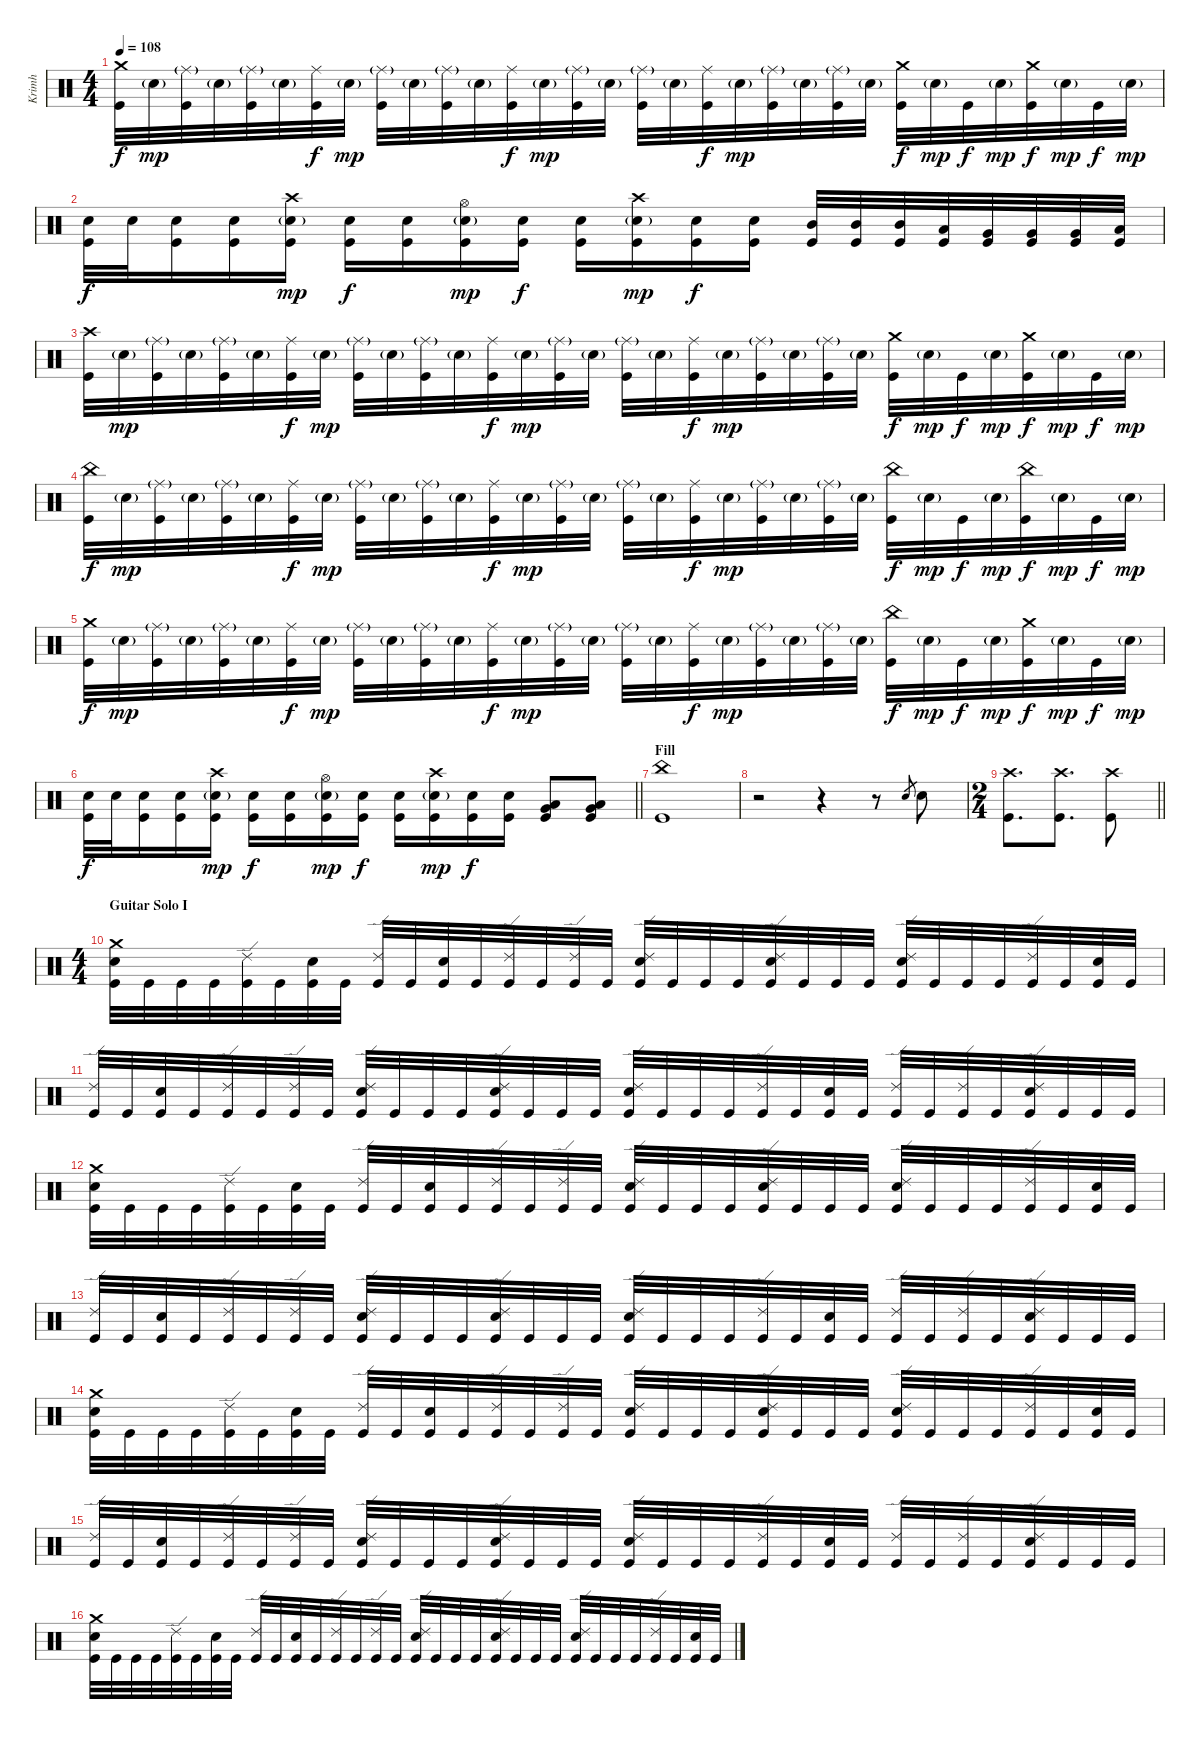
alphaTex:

\track ("Krimh" "Krimh") {instrument percussion}
\staff {score}
\articulation defaults
\ts (4 4)
\tempo 108
\clef neutral
\ks c
("Crash medium (hit)" "Kick (hit)").32{dy f} "Electric Snare (hit)"{g}.32{dy mp} ("Ride (middle)"{g} "Kick (hit)").32 "Electric Snare (hit)"{g}.32 ("Ride (middle)"{g} "Kick (hit)").32 "Electric Snare (hit)"{g}.32 ("Ride (middle)" "Kick (hit)").32{dy f} "Electric Snare (hit)"{g}.32{dy mp} ("Ride (middle)"{g} "Kick (hit)").32 "Electric Snare (hit)"{g}.32 ("Ride (middle)"{g} "Kick (hit)").32 "Electric Snare (hit)"{g}.32 ("Ride (middle)" "Kick (hit)").32{dy f} "Electric Snare (hit)"{g}.32{dy mp} ("Ride (middle)"{g} "Kick (hit)").32 "Electric Snare (hit)"{g}.32 ("Ride (middle)"{g} "Kick (hit)").32 "Electric Snare (hit)"{g}.32 ("Ride (middle)" "Kick (hit)").32{dy f} "Electric Snare (hit)"{g}.32{dy mp} ("Ride (middle)"{g} "Kick (hit)").32 "Electric Snare (hit)"{g}.32 ("Ride (middle)"{g} "Kick (hit)").32 "Electric Snare (hit)"{g}.32 ("Crash medium (hit)" "Kick (hit)").32{dy f} "Electric Snare (hit)"{g}.32{dy mp} "Kick (hit)".32{dy f} "Electric Snare (hit)"{g}.32{dy mp} ("Crash medium (hit)" "Kick (hit)").32{dy f} "Electric Snare (hit)"{g}.32{dy mp} "Kick (hit)".32{dy f} "Electric Snare (hit)"{g}.32{dy mp} |
("Electric Snare (hit)" "Kick (hit)").32{dy f} "Electric Snare (hit)".32 ("Electric Snare (hit)" "Kick (hit)").16 ("Electric Snare (hit)" "Kick (hit)").16 ("Crash high (hit)" "Electric Snare (hit)"{g} "Kick (hit)").16{dy mp} ("Electric Snare (hit)" "Kick (hit)").16{dy f} ("Electric Snare (hit)" "Kick (hit)").16 ("Hi-Hat (open)" "Electric Snare (hit)"{g} "Kick (hit)").16{dy mp} ("Electric Snare (hit)" "Kick (hit)").16{dy f} ("Electric Snare (hit)" "Kick (hit)").16 ("Crash high (hit)" "Electric Snare (hit)"{g} "Kick (hit)").16{dy mp} ("Electric Snare (hit)" "Kick (hit)").16{dy f} ("Electric Snare (hit)" "Kick (hit)").16 ("Mid Tom (hit)" "Kick (hit)").32 ("Mid Tom (hit)" "Kick (hit)").32 ("Mid Tom (hit)" "Kick (hit)").32 ("Low Tom (hit)" "Kick (hit)").32 ("Very Low Tom (hit)" "Kick (hit)").32 ("Very Low Tom (hit)" "Kick (hit)").32 ("Very Low Tom (hit)" "Kick (hit)").32 ("Low Floor Tom (hit)" "Kick (hit)").32 |
("Crash high (hit)" "Kick (hit)").32 "Electric Snare (hit)"{g}.32{dy mp} ("Ride (middle)"{g} "Kick (hit)").32 "Electric Snare (hit)"{g}.32 ("Ride (middle)"{g} "Kick (hit)").32 "Electric Snare (hit)"{g}.32 ("Ride (middle)" "Kick (hit)").32{dy f} "Electric Snare (hit)"{g}.32{dy mp} ("Ride (middle)"{g} "Kick (hit)").32 "Electric Snare (hit)"{g}.32 ("Ride (middle)"{g} "Kick (hit)").32 "Electric Snare (hit)"{g}.32 ("Ride (middle)" "Kick (hit)").32{dy f} "Electric Snare (hit)"{g}.32{dy mp} ("Ride (middle)"{g} "Kick (hit)").32 "Electric Snare (hit)"{g}.32 ("Ride (middle)"{g} "Kick (hit)").32 "Electric Snare (hit)"{g}.32 ("Ride (middle)" "Kick (hit)").32{dy f} "Electric Snare (hit)"{g}.32{dy mp} ("Ride (middle)"{g} "Kick (hit)").32 "Electric Snare (hit)"{g}.32 ("Ride (middle)"{g} "Kick (hit)").32 "Electric Snare (hit)"{g}.32 ("Crash medium (hit)" "Kick (hit)").32{dy f} "Electric Snare (hit)"{g}.32{dy mp} "Kick (hit)".32{dy f} "Electric Snare (hit)"{g}.32{dy mp} ("Crash medium (hit)" "Kick (hit)").32{dy f} "Electric Snare (hit)"{g}.32{dy mp} "Kick (hit)".32{dy f} "Electric Snare (hit)"{g}.32{dy mp} |
("China (hit)" "Kick (hit)").32{dy f} "Electric Snare (hit)"{g}.32{dy mp} ("Ride (middle)"{g} "Kick (hit)").32 "Electric Snare (hit)"{g}.32 ("Ride (middle)"{g} "Kick (hit)").32 "Electric Snare (hit)"{g}.32 ("Ride (middle)" "Kick (hit)").32{dy f} "Electric Snare (hit)"{g}.32{dy mp} ("Ride (middle)"{g} "Kick (hit)").32 "Electric Snare (hit)"{g}.32 ("Ride (middle)"{g} "Kick (hit)").32 "Electric Snare (hit)"{g}.32 ("Ride (middle)" "Kick (hit)").32{dy f} "Electric Snare (hit)"{g}.32{dy mp} ("Ride (middle)"{g} "Kick (hit)").32 "Electric Snare (hit)"{g}.32 ("Ride (middle)"{g} "Kick (hit)").32 "Electric Snare (hit)"{g}.32 ("Ride (middle)" "Kick (hit)").32{dy f} "Electric Snare (hit)"{g}.32{dy mp} ("Ride (middle)"{g} "Kick (hit)").32 "Electric Snare (hit)"{g}.32 ("Ride (middle)"{g} "Kick (hit)").32 "Electric Snare (hit)"{g}.32 ("China (hit)" "Kick (hit)").32{dy f} "Electric Snare (hit)"{g}.32{dy mp} "Kick (hit)".32{dy f} "Electric Snare (hit)"{g}.32{dy mp} ("China (hit)" "Kick (hit)").32{dy f} "Electric Snare (hit)"{g}.32{dy mp} "Kick (hit)".32{dy f} "Electric Snare (hit)"{g}.32{dy mp} |
("Crash medium (hit)" "Kick (hit)").32{dy f} "Electric Snare (hit)"{g}.32{dy mp} ("Ride (middle)"{g} "Kick (hit)").32 "Electric Snare (hit)"{g}.32 ("Ride (middle)"{g} "Kick (hit)").32 "Electric Snare (hit)"{g}.32 ("Ride (middle)" "Kick (hit)").32{dy f} "Electric Snare (hit)"{g}.32{dy mp} ("Ride (middle)"{g} "Kick (hit)").32 "Electric Snare (hit)"{g}.32 ("Ride (middle)"{g} "Kick (hit)").32 "Electric Snare (hit)"{g}.32 ("Ride (middle)" "Kick (hit)").32{dy f} "Electric Snare (hit)"{g}.32{dy mp} ("Ride (middle)"{g} "Kick (hit)").32 "Electric Snare (hit)"{g}.32 ("Ride (middle)"{g} "Kick (hit)").32 "Electric Snare (hit)"{g}.32 ("Ride (middle)" "Kick (hit)").32{dy f} "Electric Snare (hit)"{g}.32{dy mp} ("Ride (middle)"{g} "Kick (hit)").32 "Electric Snare (hit)"{g}.32 ("Ride (middle)"{g} "Kick (hit)").32 "Electric Snare (hit)"{g}.32 ("China (hit)" "Kick (hit)").32{dy f} "Electric Snare (hit)"{g}.32{dy mp} "Kick (hit)".32{dy f} "Electric Snare (hit)"{g}.32{dy mp} ("Crash medium (hit)" "Kick (hit)").32{dy f} "Electric Snare (hit)"{g}.32{dy mp} "Kick (hit)".32{dy f} "Electric Snare (hit)"{g}.32{dy mp} |
\barLineRight lightlight
("Electric Snare (hit)" "Kick (hit)").32{dy f} "Electric Snare (hit)".32 ("Electric Snare (hit)" "Kick (hit)").16 ("Electric Snare (hit)" "Kick (hit)").16 ("Crash high (hit)" "Electric Snare (hit)"{g} "Kick (hit)").16{dy mp} ("Electric Snare (hit)" "Kick (hit)").16{dy f} ("Electric Snare (hit)" "Kick (hit)").16 ("Hi-Hat (open)" "Electric Snare (hit)"{g} "Kick (hit)").16{dy mp} ("Electric Snare (hit)" "Kick (hit)").16{dy f} ("Electric Snare (hit)" "Kick (hit)").16 ("Crash high (hit)" "Electric Snare (hit)"{g} "Kick (hit)").16{dy mp} ("Electric Snare (hit)" "Kick (hit)").16{dy f} ("Electric Snare (hit)" "Kick (hit)").16 ("Low Tom (hit)" "Very Low Tom (hit)" "Kick (hit)").8 ("Low Tom (hit)" "Very Low Tom (hit)" "Kick (hit)").8 |
\section ("" "Fill")
("China (hit)" "Kick (hit)").1 |
r.2 r.4 r.8 "Electric Snare (hit)".8{gr} "Electric Snare (hit)".8 |
\ts (2 4)
\barLineRight lightlight
("Kick (hit)" "Crash high (hit)").8{d} ("Kick (hit)" "Crash high (hit)").8{d} ("Kick (hit)" "Crash high (hit)").8 |
\ts (4 4)
\section ("" "Guitar Solo I")
("Crash medium (hit)" "Electric Snare (hit)" "Kick (hit)").32 "Kick (hit)".32 "Kick (hit)".32 "Kick (hit)".32 ("Ride (edge) 2" "Kick (hit)").32 "Kick (hit)".32 ("Electric Snare (hit)" "Kick (hit)").32 "Kick (hit)".32 ("Ride (edge) 2" "Kick (hit)").32 "Kick (hit)".32 ("Electric Snare (hit)" "Kick (hit)").32 "Kick (hit)".32 ("Ride (edge) 2" "Kick (hit)").32 "Kick (hit)".32 ("Ride (edge) 2" "Kick (hit)").32 "Kick (hit)".32 ("Ride (edge) 2" "Electric Snare (hit)" "Kick (hit)").32 "Kick (hit)".32 "Kick (hit)".32 "Kick (hit)".32 ("Ride (edge) 2" "Electric Snare (hit)" "Kick (hit)").32 "Kick (hit)".32 "Kick (hit)".32 "Kick (hit)".32 ("Ride (edge) 2" "Electric Snare (hit)" "Kick (hit)").32 "Kick (hit)".32 "Kick (hit)".32 "Kick (hit)".32 ("Ride (edge) 2" "Kick (hit)").32 "Kick (hit)".32 ("Electric Snare (hit)" "Kick (hit)").32 "Kick (hit)".32 |
("Ride (edge) 2" "Kick (hit)").32 "Kick (hit)".32 ("Electric Snare (hit)" "Kick (hit)").32 "Kick (hit)".32 ("Ride (edge) 2" "Kick (hit)").32 "Kick (hit)".32 ("Ride (edge) 2" "Kick (hit)").32 "Kick (hit)".32 ("Ride (edge) 2" "Electric Snare (hit)" "Kick (hit)").32 "Kick (hit)".32 "Kick (hit)".32 "Kick (hit)".32 ("Ride (edge) 2" "Electric Snare (hit)" "Kick (hit)").32 "Kick (hit)".32 "Kick (hit)".32 "Kick (hit)".32 ("Ride (edge) 2" "Electric Snare (hit)" "Kick (hit)").32 "Kick (hit)".32 "Kick (hit)".32 "Kick (hit)".32 ("Ride (edge) 2" "Kick (hit)").32 "Kick (hit)".32 ("Electric Snare (hit)" "Kick (hit)").32 "Kick (hit)".32 ("Ride (edge) 2" "Kick (hit)").32 "Kick (hit)".32 ("Ride (edge) 2" "Kick (hit)").32 "Kick (hit)".32 ("Ride (edge) 2" "Electric Snare (hit)" "Kick (hit)").32 "Kick (hit)".32 "Kick (hit)".32 "Kick (hit)".32 |
("Crash medium (hit)" "Electric Snare (hit)" "Kick (hit)").32 "Kick (hit)".32 "Kick (hit)".32 "Kick (hit)".32 ("Ride (edge) 2" "Kick (hit)").32 "Kick (hit)".32 ("Electric Snare (hit)" "Kick (hit)").32 "Kick (hit)".32 ("Ride (edge) 2" "Kick (hit)").32 "Kick (hit)".32 ("Electric Snare (hit)" "Kick (hit)").32 "Kick (hit)".32 ("Ride (edge) 2" "Kick (hit)").32 "Kick (hit)".32 ("Ride (edge) 2" "Kick (hit)").32 "Kick (hit)".32 ("Ride (edge) 2" "Electric Snare (hit)" "Kick (hit)").32 "Kick (hit)".32 "Kick (hit)".32 "Kick (hit)".32 ("Ride (edge) 2" "Electric Snare (hit)" "Kick (hit)").32 "Kick (hit)".32 "Kick (hit)".32 "Kick (hit)".32 ("Ride (edge) 2" "Electric Snare (hit)" "Kick (hit)").32 "Kick (hit)".32 "Kick (hit)".32 "Kick (hit)".32 ("Ride (edge) 2" "Kick (hit)").32 "Kick (hit)".32 ("Electric Snare (hit)" "Kick (hit)").32 "Kick (hit)".32 |
("Ride (edge) 2" "Kick (hit)").32 "Kick (hit)".32 ("Electric Snare (hit)" "Kick (hit)").32 "Kick (hit)".32 ("Ride (edge) 2" "Kick (hit)").32 "Kick (hit)".32 ("Ride (edge) 2" "Kick (hit)").32 "Kick (hit)".32 ("Ride (edge) 2" "Electric Snare (hit)" "Kick (hit)").32 "Kick (hit)".32 "Kick (hit)".32 "Kick (hit)".32 ("Ride (edge) 2" "Electric Snare (hit)" "Kick (hit)").32 "Kick (hit)".32 "Kick (hit)".32 "Kick (hit)".32 ("Ride (edge) 2" "Electric Snare (hit)" "Kick (hit)").32 "Kick (hit)".32 "Kick (hit)".32 "Kick (hit)".32 ("Ride (edge) 2" "Kick (hit)").32 "Kick (hit)".32 ("Electric Snare (hit)" "Kick (hit)").32 "Kick (hit)".32 ("Ride (edge) 2" "Kick (hit)").32 "Kick (hit)".32 ("Ride (edge) 2" "Kick (hit)").32 "Kick (hit)".32 ("Ride (edge) 2" "Electric Snare (hit)" "Kick (hit)").32 "Kick (hit)".32 "Kick (hit)".32 "Kick (hit)".32 |
("Crash medium (hit)" "Electric Snare (hit)" "Kick (hit)").32 "Kick (hit)".32 "Kick (hit)".32 "Kick (hit)".32 ("Ride (edge) 2" "Kick (hit)").32 "Kick (hit)".32 ("Electric Snare (hit)" "Kick (hit)").32 "Kick (hit)".32 ("Ride (edge) 2" "Kick (hit)").32 "Kick (hit)".32 ("Electric Snare (hit)" "Kick (hit)").32 "Kick (hit)".32 ("Ride (edge) 2" "Kick (hit)").32 "Kick (hit)".32 ("Ride (edge) 2" "Kick (hit)").32 "Kick (hit)".32 ("Ride (edge) 2" "Electric Snare (hit)" "Kick (hit)").32 "Kick (hit)".32 "Kick (hit)".32 "Kick (hit)".32 ("Ride (edge) 2" "Electric Snare (hit)" "Kick (hit)").32 "Kick (hit)".32 "Kick (hit)".32 "Kick (hit)".32 ("Ride (edge) 2" "Electric Snare (hit)" "Kick (hit)").32 "Kick (hit)".32 "Kick (hit)".32 "Kick (hit)".32 ("Ride (edge) 2" "Kick (hit)").32 "Kick (hit)".32 ("Electric Snare (hit)" "Kick (hit)").32 "Kick (hit)".32 |
("Ride (edge) 2" "Kick (hit)").32 "Kick (hit)".32 ("Electric Snare (hit)" "Kick (hit)").32 "Kick (hit)".32 ("Ride (edge) 2" "Kick (hit)").32 "Kick (hit)".32 ("Ride (edge) 2" "Kick (hit)").32 "Kick (hit)".32 ("Ride (edge) 2" "Electric Snare (hit)" "Kick (hit)").32 "Kick (hit)".32 "Kick (hit)".32 "Kick (hit)".32 ("Ride (edge) 2" "Electric Snare (hit)" "Kick (hit)").32 "Kick (hit)".32 "Kick (hit)".32 "Kick (hit)".32 ("Ride (edge) 2" "Electric Snare (hit)" "Kick (hit)").32 "Kick (hit)".32 "Kick (hit)".32 "Kick (hit)".32 ("Ride (edge) 2" "Kick (hit)").32 "Kick (hit)".32 ("Electric Snare (hit)" "Kick (hit)").32 "Kick (hit)".32 ("Ride (edge) 2" "Kick (hit)").32 "Kick (hit)".32 ("Ride (edge) 2" "Kick (hit)").32 "Kick (hit)".32 ("Ride (edge) 2" "Electric Snare (hit)" "Kick (hit)").32 "Kick (hit)".32 "Kick (hit)".32 "Kick (hit)".32 |
("Crash medium (hit)" "Electric Snare (hit)" "Kick (hit)").32 "Kick (hit)".32 "Kick (hit)".32 "Kick (hit)".32 ("Ride (edge) 2" "Kick (hit)").32 "Kick (hit)".32 ("Electric Snare (hit)" "Kick (hit)").32 "Kick (hit)".32 ("Ride (edge) 2" "Kick (hit)").32 "Kick (hit)".32 ("Electric Snare (hit)" "Kick (hit)").32 "Kick (hit)".32 ("Ride (edge) 2" "Kick (hit)").32 "Kick (hit)".32 ("Ride (edge) 2" "Kick (hit)").32 "Kick (hit)".32 ("Ride (edge) 2" "Electric Snare (hit)" "Kick (hit)").32 "Kick (hit)".32 "Kick (hit)".32 "Kick (hit)".32 ("Ride (edge) 2" "Electric Snare (hit)" "Kick (hit)").32 "Kick (hit)".32 "Kick (hit)".32 "Kick (hit)".32 ("Ride (edge) 2" "Electric Snare (hit)" "Kick (hit)").32 "Kick (hit)".32 "Kick (hit)".32 "Kick (hit)".32 ("Ride (edge) 2" "Kick (hit)").32 "Kick (hit)".32 ("Electric Snare (hit)" "Kick (hit)").32 "Kick (hit)".32
